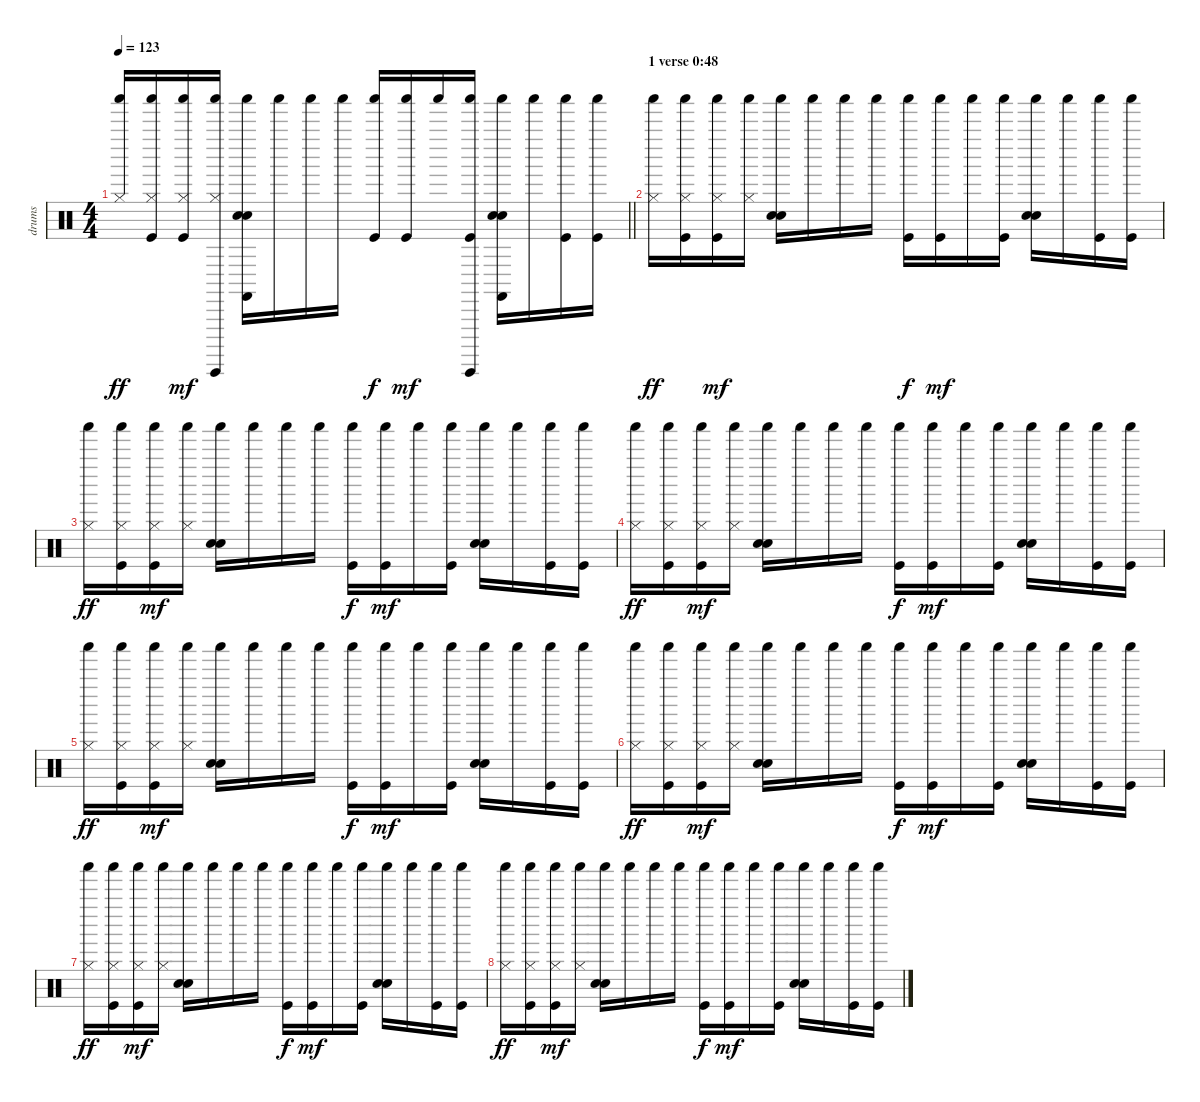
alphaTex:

\track ("drums" "drums") {instrument percussion}
\staff {score}
\articulation defaults
\ts (4 4)
\tempo 123
\clef neutral
\barLineRight lightlight
\ks c
("Shaker (hit)" "Hi-Hat (closed)").16{dy ff} ("Shaker (hit)" "Hi-Hat (closed)" "Kick (hit)").16 ("Shaker (hit)" "Hi-Hat (closed)" "Kick (hit)").16{dy mf} ("Shaker (hit)" "Hi-Hat (closed)" "Guiro (hit)").16 ("Shaker (hit)" "Electric Snare (hit)" "Hand Clap (hit)" "Castanets (hit)").16 "Shaker (hit)".16 "Shaker (hit)".16 "Shaker (hit)".16 ("Shaker (hit)" "Kick (hit)").16{dy f} ("Shaker (hit)" "Kick (hit)").16{dy mf} "Shaker (hit)".16 ("Shaker (hit)" "Guiro (hit)" "Kick (hit)").16 ("Shaker (hit)" "Electric Snare (hit)" "Hand Clap (hit)" "Castanets (hit)").16 "Shaker (hit)".16 ("Shaker (hit)" "Kick (hit)").16 ("Shaker (hit)" "Kick (hit)").16 |
\section ("" "1 verse 0:48")
("Shaker (hit)" "Hi-Hat (closed)").16{dy ff} ("Shaker (hit)" "Hi-Hat (closed)" "Kick (hit)").16 ("Shaker (hit)" "Hi-Hat (closed)" "Kick (hit)").16{dy mf} ("Shaker (hit)" "Hi-Hat (closed)").16 ("Shaker (hit)" "Electric Snare (hit)" "Hand Clap (hit)").16 "Shaker (hit)".16 "Shaker (hit)".16 "Shaker (hit)".16 ("Shaker (hit)" "Kick (hit)").16{dy f} ("Shaker (hit)" "Kick (hit)").16{dy mf} "Shaker (hit)".16 ("Shaker (hit)" "Kick (hit)").16 ("Shaker (hit)" "Electric Snare (hit)" "Hand Clap (hit)").16 "Shaker (hit)".16 ("Shaker (hit)" "Kick (hit)").16 ("Shaker (hit)" "Kick (hit)").16 |
("Shaker (hit)" "Hi-Hat (closed)").16{dy ff} ("Shaker (hit)" "Hi-Hat (closed)" "Kick (hit)").16 ("Shaker (hit)" "Hi-Hat (closed)" "Kick (hit)").16{dy mf} ("Shaker (hit)" "Hi-Hat (closed)").16 ("Shaker (hit)" "Electric Snare (hit)" "Hand Clap (hit)").16 "Shaker (hit)".16 "Shaker (hit)".16 "Shaker (hit)".16 ("Shaker (hit)" "Kick (hit)").16{dy f} ("Shaker (hit)" "Kick (hit)").16{dy mf} "Shaker (hit)".16 ("Shaker (hit)" "Kick (hit)").16 ("Shaker (hit)" "Electric Snare (hit)" "Hand Clap (hit)").16 "Shaker (hit)".16 ("Shaker (hit)" "Kick (hit)").16 ("Shaker (hit)" "Kick (hit)").16 |
("Shaker (hit)" "Hi-Hat (closed)").16{dy ff} ("Shaker (hit)" "Hi-Hat (closed)" "Kick (hit)").16 ("Shaker (hit)" "Hi-Hat (closed)" "Kick (hit)").16{dy mf} ("Shaker (hit)" "Hi-Hat (closed)").16 ("Shaker (hit)" "Electric Snare (hit)" "Hand Clap (hit)").16 "Shaker (hit)".16 "Shaker (hit)".16 "Shaker (hit)".16 ("Shaker (hit)" "Kick (hit)").16{dy f} ("Shaker (hit)" "Kick (hit)").16{dy mf} "Shaker (hit)".16 ("Shaker (hit)" "Kick (hit)").16 ("Shaker (hit)" "Electric Snare (hit)" "Hand Clap (hit)").16 "Shaker (hit)".16 ("Shaker (hit)" "Kick (hit)").16 ("Shaker (hit)" "Kick (hit)").16 |
("Shaker (hit)" "Hi-Hat (closed)").16{dy ff} ("Shaker (hit)" "Hi-Hat (closed)" "Kick (hit)").16 ("Shaker (hit)" "Hi-Hat (closed)" "Kick (hit)").16{dy mf} ("Shaker (hit)" "Hi-Hat (closed)").16 ("Shaker (hit)" "Electric Snare (hit)" "Hand Clap (hit)").16 "Shaker (hit)".16 "Shaker (hit)".16 "Shaker (hit)".16 ("Shaker (hit)" "Kick (hit)").16{dy f} ("Shaker (hit)" "Kick (hit)").16{dy mf} "Shaker (hit)".16 ("Shaker (hit)" "Kick (hit)").16 ("Shaker (hit)" "Electric Snare (hit)" "Hand Clap (hit)").16 "Shaker (hit)".16 ("Shaker (hit)" "Kick (hit)").16 ("Shaker (hit)" "Kick (hit)").16 |
("Shaker (hit)" "Hi-Hat (closed)").16{dy ff} ("Shaker (hit)" "Hi-Hat (closed)" "Kick (hit)").16 ("Shaker (hit)" "Hi-Hat (closed)" "Kick (hit)").16{dy mf} ("Shaker (hit)" "Hi-Hat (closed)").16 ("Shaker (hit)" "Electric Snare (hit)" "Hand Clap (hit)").16 "Shaker (hit)".16 "Shaker (hit)".16 "Shaker (hit)".16 ("Shaker (hit)" "Kick (hit)").16{dy f} ("Shaker (hit)" "Kick (hit)").16{dy mf} "Shaker (hit)".16 ("Shaker (hit)" "Kick (hit)").16 ("Shaker (hit)" "Electric Snare (hit)" "Hand Clap (hit)").16 "Shaker (hit)".16 ("Shaker (hit)" "Kick (hit)").16 ("Shaker (hit)" "Kick (hit)").16 |
("Shaker (hit)" "Hi-Hat (closed)").16{dy ff} ("Shaker (hit)" "Hi-Hat (closed)" "Kick (hit)").16 ("Shaker (hit)" "Hi-Hat (closed)" "Kick (hit)").16{dy mf} ("Shaker (hit)" "Hi-Hat (closed)").16 ("Shaker (hit)" "Electric Snare (hit)" "Hand Clap (hit)").16 "Shaker (hit)".16 "Shaker (hit)".16 "Shaker (hit)".16 ("Shaker (hit)" "Kick (hit)").16{dy f} ("Shaker (hit)" "Kick (hit)").16{dy mf} "Shaker (hit)".16 ("Shaker (hit)" "Kick (hit)").16 ("Shaker (hit)" "Electric Snare (hit)" "Hand Clap (hit)").16 "Shaker (hit)".16 ("Shaker (hit)" "Kick (hit)").16 ("Shaker (hit)" "Kick (hit)").16 |
("Shaker (hit)" "Hi-Hat (closed)").16{dy ff} ("Shaker (hit)" "Hi-Hat (closed)" "Kick (hit)").16 ("Shaker (hit)" "Hi-Hat (closed)" "Kick (hit)").16{dy mf} ("Shaker (hit)" "Hi-Hat (closed)").16 ("Shaker (hit)" "Electric Snare (hit)" "Hand Clap (hit)").16 "Shaker (hit)".16 "Shaker (hit)".16 "Shaker (hit)".16 ("Shaker (hit)" "Kick (hit)").16{dy f} ("Shaker (hit)" "Kick (hit)").16{dy mf} "Shaker (hit)".16 ("Shaker (hit)" "Kick (hit)").16 ("Shaker (hit)" "Electric Snare (hit)" "Hand Clap (hit)").16 "Shaker (hit)".16 ("Shaker (hit)" "Kick (hit)").16 ("Shaker (hit)" "Kick (hit)").16
